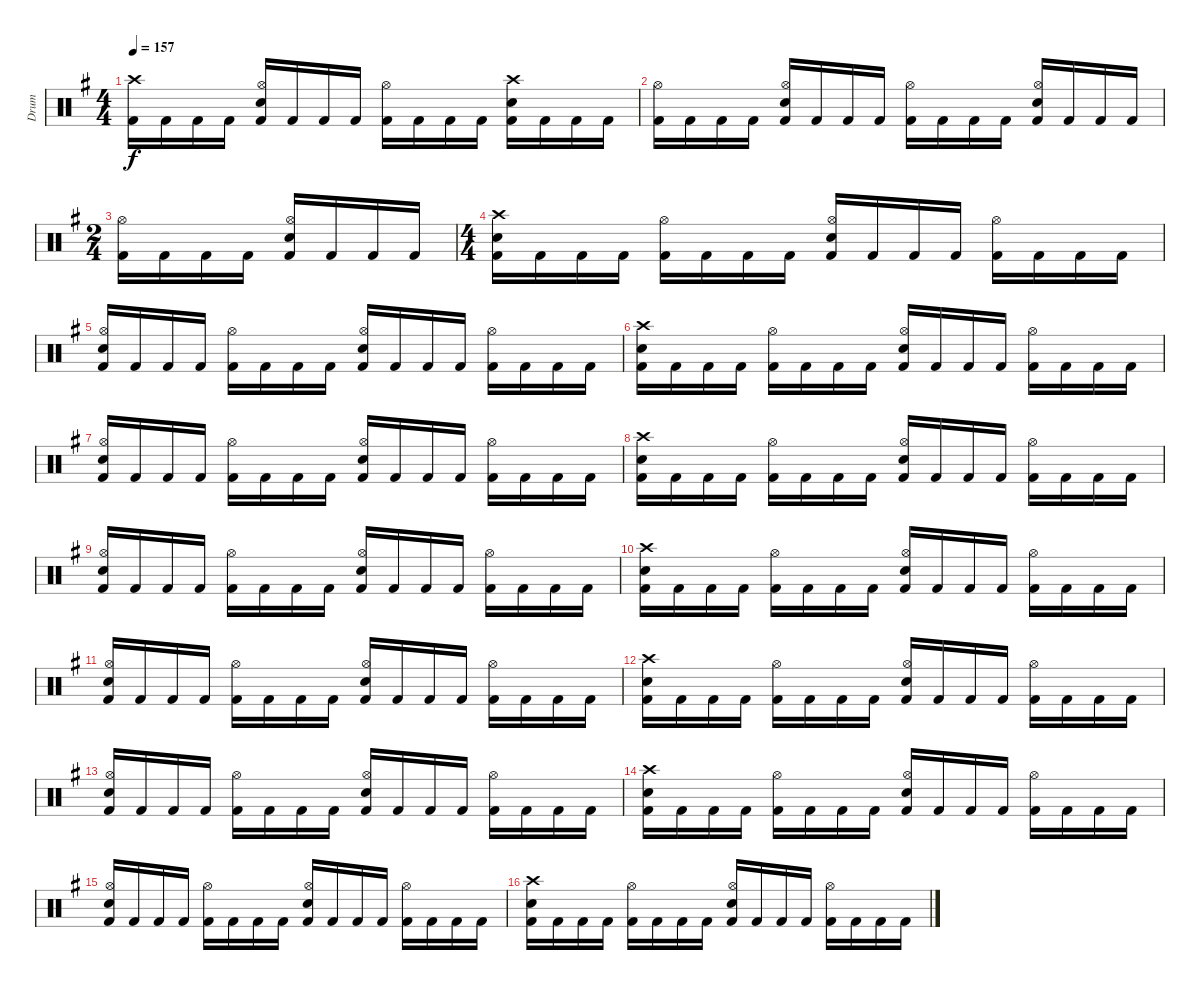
\track ("Drum" "Drum") {instrument percussion}
\staff {score}
\articulation defaults
\ts (4 4)
\tempo 157
\clef neutral
\ks eminor
("Crash high (hit)" "Kick (hit) 2").16{dy f} "Kick (hit) 2".16 "Kick (hit) 2".16 "Kick (hit) 2".16 ("Hi-Hat (open)" "Snare (hit) 2" "Kick (hit) 2").16 "Kick (hit) 2".16 "Kick (hit) 2".16 "Kick (hit) 2".16 ("Hi-Hat (open)" "Kick (hit) 2").16 "Kick (hit) 2".16 "Kick (hit) 2".16 "Kick (hit) 2".16 ("Crash high (hit)" "Snare (hit) 2" "Kick (hit) 2").16 "Kick (hit) 2".16 "Kick (hit) 2".16 "Kick (hit) 2".16 |
("Hi-Hat (open)" "Kick (hit) 2").16 "Kick (hit) 2".16 "Kick (hit) 2".16 "Kick (hit) 2".16 ("Hi-Hat (open)" "Snare (hit) 2" "Kick (hit) 2").16 "Kick (hit) 2".16 "Kick (hit) 2".16 "Kick (hit) 2".16 ("Hi-Hat (open)" "Kick (hit) 2").16 "Kick (hit) 2".16 "Kick (hit) 2".16 "Kick (hit) 2".16 ("Hi-Hat (open)" "Snare (hit) 2" "Kick (hit) 2").16 "Kick (hit) 2".16 "Kick (hit) 2".16 "Kick (hit) 2".16 |
\ts (2 4)
("Hi-Hat (open)" "Kick (hit) 2").16 "Kick (hit) 2".16 "Kick (hit) 2".16 "Kick (hit) 2".16 ("Hi-Hat (open)" "Snare (hit) 2" "Kick (hit) 2").16 "Kick (hit) 2".16 "Kick (hit) 2".16 "Kick (hit) 2".16 |
\ts (4 4)
("Crash high (hit)" "Snare (hit) 2" "Kick (hit) 2").16 "Kick (hit) 2".16 "Kick (hit) 2".16 "Kick (hit) 2".16 ("Hi-Hat (open)" "Kick (hit) 2").16 "Kick (hit) 2".16 "Kick (hit) 2".16 "Kick (hit) 2".16 ("Hi-Hat (open)" "Snare (hit) 2" "Kick (hit) 2").16 "Kick (hit) 2".16 "Kick (hit) 2".16 "Kick (hit) 2".16 ("Hi-Hat (open)" "Kick (hit) 2").16 "Kick (hit) 2".16 "Kick (hit) 2".16 "Kick (hit) 2".16 |
("Hi-Hat (open)" "Snare (hit) 2" "Kick (hit) 2").16 "Kick (hit) 2".16 "Kick (hit) 2".16 "Kick (hit) 2".16 ("Hi-Hat (open)" "Kick (hit) 2").16 "Kick (hit) 2".16 "Kick (hit) 2".16 "Kick (hit) 2".16 ("Hi-Hat (open)" "Snare (hit) 2" "Kick (hit) 2").16 "Kick (hit) 2".16 "Kick (hit) 2".16 "Kick (hit) 2".16 ("Hi-Hat (open)" "Kick (hit) 2").16 "Kick (hit) 2".16 "Kick (hit) 2".16 "Kick (hit) 2".16 |
("Crash high (hit)" "Snare (hit) 2" "Kick (hit) 2").16 "Kick (hit) 2".16 "Kick (hit) 2".16 "Kick (hit) 2".16 ("Hi-Hat (open)" "Kick (hit) 2").16 "Kick (hit) 2".16 "Kick (hit) 2".16 "Kick (hit) 2".16 ("Hi-Hat (open)" "Snare (hit) 2" "Kick (hit) 2").16 "Kick (hit) 2".16 "Kick (hit) 2".16 "Kick (hit) 2".16 ("Hi-Hat (open)" "Kick (hit) 2").16 "Kick (hit) 2".16 "Kick (hit) 2".16 "Kick (hit) 2".16 |
("Hi-Hat (open)" "Snare (hit) 2" "Kick (hit) 2").16 "Kick (hit) 2".16 "Kick (hit) 2".16 "Kick (hit) 2".16 ("Hi-Hat (open)" "Kick (hit) 2").16 "Kick (hit) 2".16 "Kick (hit) 2".16 "Kick (hit) 2".16 ("Hi-Hat (open)" "Snare (hit) 2" "Kick (hit) 2").16 "Kick (hit) 2".16 "Kick (hit) 2".16 "Kick (hit) 2".16 ("Hi-Hat (open)" "Kick (hit) 2").16 "Kick (hit) 2".16 "Kick (hit) 2".16 "Kick (hit) 2".16 |
("Crash high (hit)" "Snare (hit) 2" "Kick (hit) 2").16 "Kick (hit) 2".16 "Kick (hit) 2".16 "Kick (hit) 2".16 ("Hi-Hat (open)" "Kick (hit) 2").16 "Kick (hit) 2".16 "Kick (hit) 2".16 "Kick (hit) 2".16 ("Hi-Hat (open)" "Snare (hit) 2" "Kick (hit) 2").16 "Kick (hit) 2".16 "Kick (hit) 2".16 "Kick (hit) 2".16 ("Hi-Hat (open)" "Kick (hit) 2").16 "Kick (hit) 2".16 "Kick (hit) 2".16 "Kick (hit) 2".16 |
("Hi-Hat (open)" "Snare (hit) 2" "Kick (hit) 2").16 "Kick (hit) 2".16 "Kick (hit) 2".16 "Kick (hit) 2".16 ("Hi-Hat (open)" "Kick (hit) 2").16 "Kick (hit) 2".16 "Kick (hit) 2".16 "Kick (hit) 2".16 ("Hi-Hat (open)" "Snare (hit) 2" "Kick (hit) 2").16 "Kick (hit) 2".16 "Kick (hit) 2".16 "Kick (hit) 2".16 ("Hi-Hat (open)" "Kick (hit) 2").16 "Kick (hit) 2".16 "Kick (hit) 2".16 "Kick (hit) 2".16 |
("Crash high (hit)" "Snare (hit) 2" "Kick (hit) 2").16 "Kick (hit) 2".16 "Kick (hit) 2".16 "Kick (hit) 2".16 ("Hi-Hat (open)" "Kick (hit) 2").16 "Kick (hit) 2".16 "Kick (hit) 2".16 "Kick (hit) 2".16 ("Hi-Hat (open)" "Snare (hit) 2" "Kick (hit) 2").16 "Kick (hit) 2".16 "Kick (hit) 2".16 "Kick (hit) 2".16 ("Hi-Hat (open)" "Kick (hit) 2").16 "Kick (hit) 2".16 "Kick (hit) 2".16 "Kick (hit) 2".16 |
("Hi-Hat (open)" "Snare (hit) 2" "Kick (hit) 2").16 "Kick (hit) 2".16 "Kick (hit) 2".16 "Kick (hit) 2".16 ("Hi-Hat (open)" "Kick (hit) 2").16 "Kick (hit) 2".16 "Kick (hit) 2".16 "Kick (hit) 2".16 ("Hi-Hat (open)" "Snare (hit) 2" "Kick (hit) 2").16 "Kick (hit) 2".16 "Kick (hit) 2".16 "Kick (hit) 2".16 ("Hi-Hat (open)" "Kick (hit) 2").16 "Kick (hit) 2".16 "Kick (hit) 2".16 "Kick (hit) 2".16 |
("Crash high (hit)" "Snare (hit) 2" "Kick (hit) 2").16 "Kick (hit) 2".16 "Kick (hit) 2".16 "Kick (hit) 2".16 ("Hi-Hat (open)" "Kick (hit) 2").16 "Kick (hit) 2".16 "Kick (hit) 2".16 "Kick (hit) 2".16 ("Hi-Hat (open)" "Snare (hit) 2" "Kick (hit) 2").16 "Kick (hit) 2".16 "Kick (hit) 2".16 "Kick (hit) 2".16 ("Hi-Hat (open)" "Kick (hit) 2").16 "Kick (hit) 2".16 "Kick (hit) 2".16 "Kick (hit) 2".16 |
("Hi-Hat (open)" "Snare (hit) 2" "Kick (hit) 2").16 "Kick (hit) 2".16 "Kick (hit) 2".16 "Kick (hit) 2".16 ("Hi-Hat (open)" "Kick (hit) 2").16 "Kick (hit) 2".16 "Kick (hit) 2".16 "Kick (hit) 2".16 ("Hi-Hat (open)" "Snare (hit) 2" "Kick (hit) 2").16 "Kick (hit) 2".16 "Kick (hit) 2".16 "Kick (hit) 2".16 ("Hi-Hat (open)" "Kick (hit) 2").16 "Kick (hit) 2".16 "Kick (hit) 2".16 "Kick (hit) 2".16 |
("Crash high (hit)" "Snare (hit) 2" "Kick (hit) 2").16 "Kick (hit) 2".16 "Kick (hit) 2".16 "Kick (hit) 2".16 ("Hi-Hat (open)" "Kick (hit) 2").16 "Kick (hit) 2".16 "Kick (hit) 2".16 "Kick (hit) 2".16 ("Hi-Hat (open)" "Snare (hit) 2" "Kick (hit) 2").16 "Kick (hit) 2".16 "Kick (hit) 2".16 "Kick (hit) 2".16 ("Hi-Hat (open)" "Kick (hit) 2").16 "Kick (hit) 2".16 "Kick (hit) 2".16 "Kick (hit) 2".16 |
("Hi-Hat (open)" "Snare (hit) 2" "Kick (hit) 2").16 "Kick (hit) 2".16 "Kick (hit) 2".16 "Kick (hit) 2".16 ("Hi-Hat (open)" "Kick (hit) 2").16 "Kick (hit) 2".16 "Kick (hit) 2".16 "Kick (hit) 2".16 ("Hi-Hat (open)" "Snare (hit) 2" "Kick (hit) 2").16 "Kick (hit) 2".16 "Kick (hit) 2".16 "Kick (hit) 2".16 ("Hi-Hat (open)" "Kick (hit) 2").16 "Kick (hit) 2".16 "Kick (hit) 2".16 "Kick (hit) 2".16 |
("Crash high (hit)" "Snare (hit) 2" "Kick (hit) 2").16 "Kick (hit) 2".16 "Kick (hit) 2".16 "Kick (hit) 2".16 ("Hi-Hat (open)" "Kick (hit) 2").16 "Kick (hit) 2".16 "Kick (hit) 2".16 "Kick (hit) 2".16 ("Hi-Hat (open)" "Snare (hit) 2" "Kick (hit) 2").16 "Kick (hit) 2".16 "Kick (hit) 2".16 "Kick (hit) 2".16 ("Hi-Hat (open)" "Kick (hit) 2").16 "Kick (hit) 2".16 "Kick (hit) 2".16 "Kick (hit) 2".16
